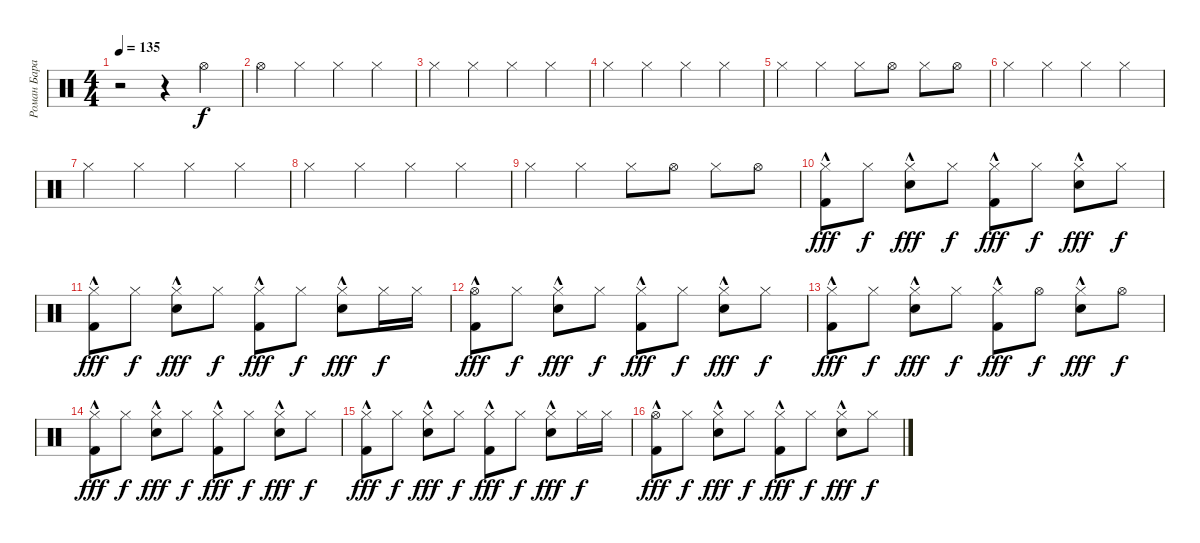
\track ("Роман Баранюк" "Роман Бара") {instrument percussion}
\staff {score}
\articulation defaults
\ts (4 4)
\tempo 135
\clef neutral
\ks c
r.2{dy f} r.4 "Hi-Hat (open)".4 |
"Hi-Hat (open)".4 "Hi-Hat (closed)".4 "Hi-Hat (closed)".4 "Hi-Hat (closed)".4 |
"Hi-Hat (closed)".4 "Hi-Hat (closed)".4 "Hi-Hat (closed)".4 "Hi-Hat (closed)".4 |
"Hi-Hat (closed)".4 "Hi-Hat (closed)".4 "Hi-Hat (closed)".4 "Hi-Hat (closed)".4 |
"Hi-Hat (closed)".4 "Hi-Hat (closed)".4 "Hi-Hat (closed)".8 "Hi-Hat (open)".8 "Hi-Hat (closed)".8 "Hi-Hat (open)".8 |
"Hi-Hat (closed)".4 "Hi-Hat (closed)".4 "Hi-Hat (closed)".4 "Hi-Hat (closed)".4 |
"Hi-Hat (closed)".4 "Hi-Hat (closed)".4 "Hi-Hat (closed)".4 "Hi-Hat (closed)".4 |
"Hi-Hat (closed)".4 "Hi-Hat (closed)".4 "Hi-Hat (closed)".4 "Hi-Hat (closed)".4 |
"Hi-Hat (closed)".4 "Hi-Hat (closed)".4 "Hi-Hat (closed)".8 "Hi-Hat (open)".8 "Hi-Hat (closed)".8 "Hi-Hat (open)".8 |
("Hi-Hat (closed)"{hac} "Kick (hit) 2").8{dy fff} "Hi-Hat (closed)".8{dy f} ("Hi-Hat (closed)"{hac} "Snare (hit) 2").8{dy fff} "Hi-Hat (closed)".8{dy f} ("Hi-Hat (closed)"{hac} "Kick (hit) 2").8{dy fff} "Hi-Hat (closed)".8{dy f} ("Hi-Hat (closed)"{hac} "Snare (hit) 2").8{dy fff} "Hi-Hat (closed)".8{dy f} |
("Hi-Hat (closed)"{hac} "Kick (hit) 2").8{dy fff} "Hi-Hat (closed)".8{dy f} ("Hi-Hat (closed)"{hac} "Snare (hit) 2").8{dy fff} "Hi-Hat (closed)".8{dy f} ("Hi-Hat (closed)"{hac} "Kick (hit) 2").8{dy fff} "Hi-Hat (closed)".8{dy f} ("Hi-Hat (closed)"{hac} "Snare (hit) 2").8{dy fff} "Hi-Hat (closed)".16{dy f} "Hi-Hat (closed)".16 |
("Hi-Hat (open)"{hac} "Kick (hit) 2").8{dy fff} "Hi-Hat (closed)".8{dy f} ("Hi-Hat (closed)"{hac} "Snare (hit) 2").8{dy fff} "Hi-Hat (closed)".8{dy f} ("Hi-Hat (closed)"{hac} "Kick (hit) 2").8{dy fff} "Hi-Hat (closed)".8{dy f} ("Hi-Hat (closed)"{hac} "Snare (hit) 2").8{dy fff} "Hi-Hat (closed)".8{dy f} |
("Hi-Hat (closed)"{hac} "Kick (hit) 2").8{dy fff} "Hi-Hat (closed)".8{dy f} ("Hi-Hat (closed)"{hac} "Snare (hit) 2").8{dy fff} "Hi-Hat (closed)".8{dy f} ("Hi-Hat (closed)"{hac} "Kick (hit) 2").8{dy fff} "Hi-Hat (open)".8{dy f} ("Hi-Hat (closed)"{hac} "Snare (hit) 2").8{dy fff} "Hi-Hat (open)".8{dy f} |
("Hi-Hat (closed)"{hac} "Kick (hit) 2").8{dy fff} "Hi-Hat (closed)".8{dy f} ("Hi-Hat (closed)"{hac} "Snare (hit) 2").8{dy fff} "Hi-Hat (closed)".8{dy f} ("Hi-Hat (closed)"{hac} "Kick (hit) 2").8{dy fff} "Hi-Hat (closed)".8{dy f} ("Hi-Hat (closed)"{hac} "Snare (hit) 2").8{dy fff} "Hi-Hat (closed)".8{dy f} |
("Hi-Hat (closed)"{hac} "Kick (hit) 2").8{dy fff} "Hi-Hat (closed)".8{dy f} ("Hi-Hat (closed)"{hac} "Snare (hit) 2").8{dy fff} "Hi-Hat (closed)".8{dy f} ("Hi-Hat (closed)"{hac} "Kick (hit) 2").8{dy fff} "Hi-Hat (closed)".8{dy f} ("Hi-Hat (closed)"{hac} "Snare (hit) 2").8{dy fff} "Hi-Hat (closed)".16{dy f} "Hi-Hat (closed)".16 |
("Hi-Hat (open)"{hac} "Kick (hit) 2").8{dy fff} "Hi-Hat (closed)".8{dy f} ("Hi-Hat (closed)"{hac} "Snare (hit) 2").8{dy fff} "Hi-Hat (closed)".8{dy f} ("Hi-Hat (closed)"{hac} "Kick (hit) 2").8{dy fff} "Hi-Hat (closed)".8{dy f} ("Hi-Hat (closed)"{hac} "Snare (hit) 2").8{dy fff} "Hi-Hat (closed)".8{dy f}
